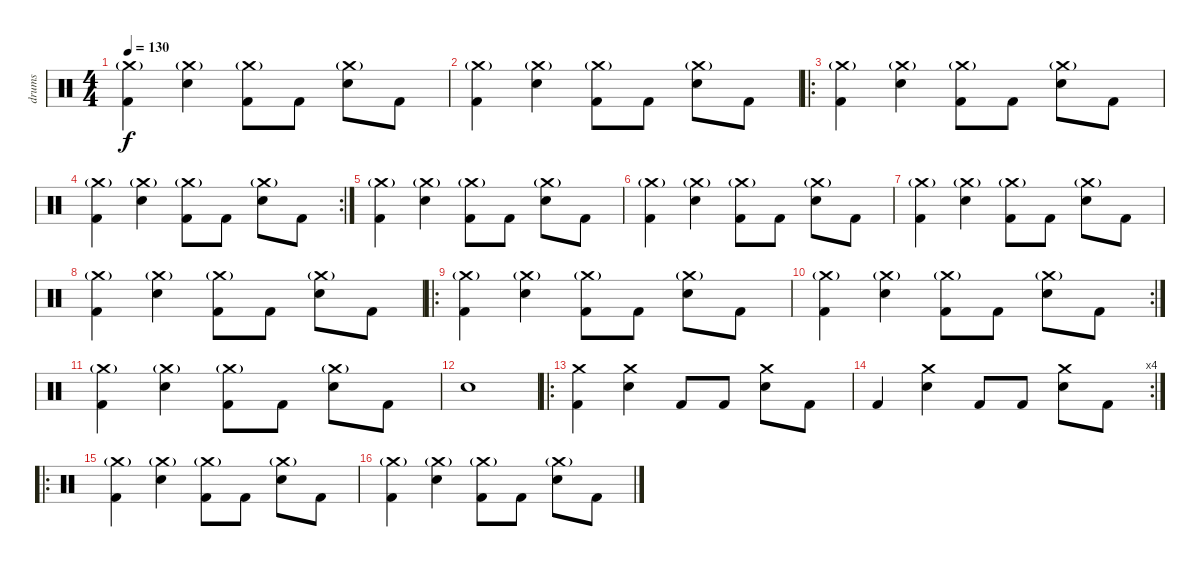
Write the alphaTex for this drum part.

\track ("drums" "drums") {instrument percussion}
\staff {score}
\articulation defaults
\ts (4 4)
\tempo 130
\clef neutral
\ks c
("Crash medium (hit)"{g} "Kick (hit) 2").4{dy f} ("Crash medium (hit)"{g} "Electric Snare (hit)").4 ("Crash medium (hit)"{g} "Kick (hit) 2").8 "Kick (hit) 2".8 ("Crash medium (hit)"{g} "Electric Snare (hit)").8 "Kick (hit) 2".8 |
("Crash medium (hit)"{g} "Kick (hit) 2").4 ("Crash medium (hit)"{g} "Electric Snare (hit)").4 ("Crash medium (hit)"{g} "Kick (hit) 2").8 "Kick (hit) 2".8 ("Crash medium (hit)"{g} "Electric Snare (hit)").8 "Kick (hit) 2".8 |
\ro
("Crash medium (hit)"{g} "Kick (hit) 2").4 ("Crash medium (hit)"{g} "Electric Snare (hit)").4 ("Crash medium (hit)"{g} "Kick (hit) 2").8 "Kick (hit) 2".8 ("Crash medium (hit)"{g} "Electric Snare (hit)").8 "Kick (hit) 2".8 |
\rc 2
("Crash medium (hit)"{g} "Kick (hit) 2").4 ("Crash medium (hit)"{g} "Electric Snare (hit)").4 ("Crash medium (hit)"{g} "Kick (hit) 2").8 "Kick (hit) 2".8 ("Crash medium (hit)"{g} "Electric Snare (hit)").8 "Kick (hit) 2".8 |
("Crash medium (hit)"{g} "Kick (hit) 2").4 ("Crash medium (hit)"{g} "Electric Snare (hit)").4 ("Crash medium (hit)"{g} "Kick (hit) 2").8 "Kick (hit) 2".8 ("Crash medium (hit)"{g} "Electric Snare (hit)").8 "Kick (hit) 2".8 |
("Crash medium (hit)"{g} "Kick (hit) 2").4 ("Crash medium (hit)"{g} "Electric Snare (hit)").4 ("Crash medium (hit)"{g} "Kick (hit) 2").8 "Kick (hit) 2".8 ("Crash medium (hit)"{g} "Electric Snare (hit)").8 "Kick (hit) 2".8 |
("Crash medium (hit)"{g} "Kick (hit) 2").4 ("Crash medium (hit)"{g} "Electric Snare (hit)").4 ("Crash medium (hit)"{g} "Kick (hit) 2").8 "Kick (hit) 2".8 ("Crash medium (hit)"{g} "Electric Snare (hit)").8 "Kick (hit) 2".8 |
("Crash medium (hit)"{g} "Kick (hit) 2").4 ("Crash medium (hit)"{g} "Electric Snare (hit)").4 ("Crash medium (hit)"{g} "Kick (hit) 2").8 "Kick (hit) 2".8 ("Crash medium (hit)"{g} "Electric Snare (hit)").8 "Kick (hit) 2".8 |
\ro
("Crash medium (hit)"{g} "Kick (hit) 2").4 ("Crash medium (hit)"{g} "Electric Snare (hit)").4 ("Crash medium (hit)"{g} "Kick (hit) 2").8 "Kick (hit) 2".8 ("Crash medium (hit)"{g} "Electric Snare (hit)").8 "Kick (hit) 2".8 |
\rc 2
("Crash medium (hit)"{g} "Kick (hit) 2").4 ("Crash medium (hit)"{g} "Electric Snare (hit)").4 ("Crash medium (hit)"{g} "Kick (hit) 2").8 "Kick (hit) 2".8 ("Crash medium (hit)"{g} "Electric Snare (hit)").8 "Kick (hit) 2".8 |
("Crash medium (hit)"{g} "Kick (hit) 2").4 ("Crash medium (hit)"{g} "Electric Snare (hit)").4 ("Crash medium (hit)"{g} "Kick (hit) 2").8 "Kick (hit) 2".8 ("Crash medium (hit)"{g} "Electric Snare (hit)").8 "Kick (hit) 2".8 |
"Electric Snare (hit)".1 |
\ro
("Crash medium (hit)" "Kick (hit) 2").4 ("Crash medium (hit)" "Electric Snare (hit)").4 "Kick (hit) 2".8 "Kick (hit) 2".8 ("Crash medium (hit)" "Electric Snare (hit)").8 "Kick (hit) 2".8 |
\rc 4 "Kick (hit) 2".4
("Crash medium (hit)" "Electric Snare (hit)").4 "Kick (hit) 2".8 "Kick (hit) 2".8 ("Crash medium (hit)" "Electric Snare (hit)").8 "Kick (hit) 2".8 |
\ro
("Crash medium (hit)"{g} "Kick (hit) 2").4 ("Crash medium (hit)"{g} "Electric Snare (hit)").4 ("Crash medium (hit)"{g} "Kick (hit) 2").8 "Kick (hit) 2".8 ("Crash medium (hit)"{g} "Electric Snare (hit)").8 "Kick (hit) 2".8 |
("Crash medium (hit)"{g} "Kick (hit) 2").4 ("Crash medium (hit)"{g} "Electric Snare (hit)").4 ("Crash medium (hit)"{g} "Kick (hit) 2").8 "Kick (hit) 2".8 ("Crash medium (hit)"{g} "Electric Snare (hit)").8 "Kick (hit) 2".8
